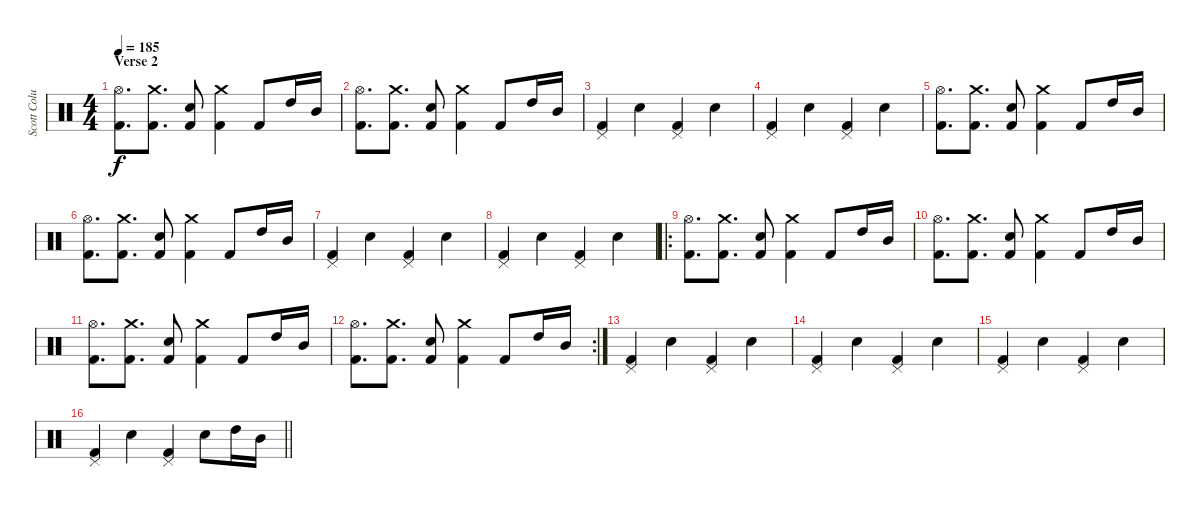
\track ("Scott Columbus" "Scott Colu") {instrument percussion}
\staff {score}
\articulation defaults
\ts (4 4)
\section ("" "Verse 2")
\tempo 185
\clef neutral
\ks c
("Hi-Hat (open)" "Kick (hit) 2").8{d dy f} ("Crash medium (hit)" "Kick (hit) 2").8{d} ("Snare (hit) 2" "Kick (hit) 2").8 ("Crash medium (hit)" "Kick (hit) 2").4 "Kick (hit) 2".8 "High Tom (hit)".16 "Mid Tom (hit)".16 |
("Hi-Hat (open)" "Kick (hit) 2").8{d} ("Crash medium (hit)" "Kick (hit) 2").8{d} ("Snare (hit) 2" "Kick (hit) 2").8 ("Crash medium (hit)" "Kick (hit) 2").4 "Kick (hit) 2".8 "High Tom (hit)".16 "Mid Tom (hit)".16 |
("Pedal Hi-Hat (hit)" "Kick (hit) 2").4 "Snare (hit) 2".4 ("Pedal Hi-Hat (hit)" "Kick (hit) 2").4 "Snare (hit) 2".4 |
("Pedal Hi-Hat (hit)" "Kick (hit) 2").4 "Snare (hit) 2".4 ("Pedal Hi-Hat (hit)" "Kick (hit) 2").4 "Snare (hit) 2".4 |
("Hi-Hat (open)" "Kick (hit) 2").8{d} ("Crash medium (hit)" "Kick (hit) 2").8{d} ("Snare (hit) 2" "Kick (hit) 2").8 ("Crash medium (hit)" "Kick (hit) 2").4 "Kick (hit) 2".8 "High Tom (hit)".16 "Mid Tom (hit)".16 |
("Hi-Hat (open)" "Kick (hit) 2").8{d} ("Crash medium (hit)" "Kick (hit) 2").8{d} ("Snare (hit) 2" "Kick (hit) 2").8 ("Crash medium (hit)" "Kick (hit) 2").4 "Kick (hit) 2".8 "High Tom (hit)".16 "Mid Tom (hit)".16 |
("Pedal Hi-Hat (hit)" "Kick (hit) 2").4 "Snare (hit) 2".4 ("Pedal Hi-Hat (hit)" "Kick (hit) 2").4 "Snare (hit) 2".4 |
("Pedal Hi-Hat (hit)" "Kick (hit) 2").4 "Snare (hit) 2".4 ("Pedal Hi-Hat (hit)" "Kick (hit) 2").4 "Snare (hit) 2".4 |
\ro
("Hi-Hat (open)" "Kick (hit) 2").8{d} ("Crash medium (hit)" "Kick (hit) 2").8{d} ("Snare (hit) 2" "Kick (hit) 2").8 ("Crash medium (hit)" "Kick (hit) 2").4 "Kick (hit) 2".8 "High Tom (hit)".16 "Mid Tom (hit)".16 |
("Hi-Hat (open)" "Kick (hit) 2").8{d} ("Crash medium (hit)" "Kick (hit) 2").8{d} ("Snare (hit) 2" "Kick (hit) 2").8 ("Crash medium (hit)" "Kick (hit) 2").4 "Kick (hit) 2".8 "High Tom (hit)".16 "Mid Tom (hit)".16 |
("Hi-Hat (open)" "Kick (hit) 2").8{d} ("Crash medium (hit)" "Kick (hit) 2").8{d} ("Snare (hit) 2" "Kick (hit) 2").8 ("Crash medium (hit)" "Kick (hit) 2").4 "Kick (hit) 2".8 "High Tom (hit)".16 "Mid Tom (hit)".16 |
\rc 2
("Hi-Hat (open)" "Kick (hit) 2").8{d} ("Crash medium (hit)" "Kick (hit) 2").8{d} ("Snare (hit) 2" "Kick (hit) 2").8 ("Crash medium (hit)" "Kick (hit) 2").4 "Kick (hit) 2".8 "High Tom (hit)".16 "Mid Tom (hit)".16 |
("Pedal Hi-Hat (hit)" "Kick (hit) 2").4 "Snare (hit) 2".4 ("Pedal Hi-Hat (hit)" "Kick (hit) 2").4 "Snare (hit) 2".4 |
("Pedal Hi-Hat (hit)" "Kick (hit) 2").4 "Snare (hit) 2".4 ("Pedal Hi-Hat (hit)" "Kick (hit) 2").4 "Snare (hit) 2".4 |
("Pedal Hi-Hat (hit)" "Kick (hit) 2").4 "Snare (hit) 2".4 ("Pedal Hi-Hat (hit)" "Kick (hit) 2").4 "Snare (hit) 2".4 |
\barLineRight lightlight
("Pedal Hi-Hat (hit)" "Kick (hit) 2").4 "Snare (hit) 2".4 ("Pedal Hi-Hat (hit)" "Kick (hit) 2").4 "Snare (hit) 2".8 "High Tom (hit)".16 "Mid Tom (hit)".16
